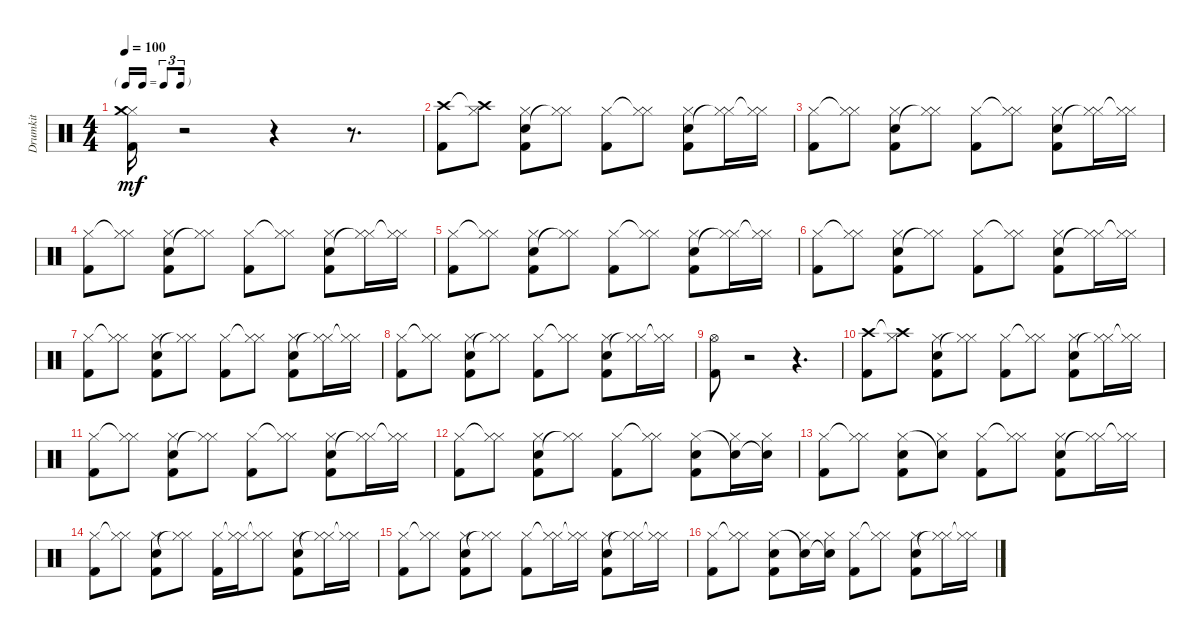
\track ("Drumkit" "Drumkit") {instrument percussion}
\staff {score}
\articulation defaults
\ts (4 4)
\tf triplet16th
\tempo 100
\clef neutral
\ks c
("Kick (hit) 2" "Hi-Hat (closed)" "Crash medium (hit)").16{dy mf} r.2 r.4 r.8{d} |
("Crash high (hit)" "Kick (hit) 2").8 ("Crash high (hit)"{t} "Hi-Hat (closed)").8 ("Snare (hit) 2" "Hi-Hat (closed)" "Kick (hit) 2").8 ("Hi-Hat (closed)"{t} "Hi-Hat (closed)").8 ("Hi-Hat (closed)" "Kick (hit) 2").8 ("Hi-Hat (closed)"{t} "Hi-Hat (closed)").8 ("Snare (hit) 2" "Hi-Hat (closed)" "Kick (hit) 2").8 ("Hi-Hat (closed)"{t} "Hi-Hat (closed)").16 ("Hi-Hat (closed)"{t} "Hi-Hat (closed)").16 |
("Hi-Hat (closed)" "Kick (hit) 2").8 ("Hi-Hat (closed)"{t} "Hi-Hat (closed)").8 ("Snare (hit) 2" "Hi-Hat (closed)" "Kick (hit) 2").8 ("Hi-Hat (closed)"{t} "Hi-Hat (closed)").8 ("Hi-Hat (closed)" "Kick (hit) 2").8 ("Hi-Hat (closed)"{t} "Hi-Hat (closed)").8 ("Snare (hit) 2" "Hi-Hat (closed)" "Kick (hit) 2").8 ("Hi-Hat (closed)"{t} "Hi-Hat (closed)").16 ("Hi-Hat (closed)"{t} "Hi-Hat (closed)").16 |
("Hi-Hat (closed)" "Kick (hit) 2").8 ("Hi-Hat (closed)"{t} "Hi-Hat (closed)").8 ("Snare (hit) 2" "Hi-Hat (closed)" "Kick (hit) 2").8 ("Hi-Hat (closed)"{t} "Hi-Hat (closed)").8 ("Hi-Hat (closed)" "Kick (hit) 2").8 ("Hi-Hat (closed)"{t} "Hi-Hat (closed)").8 ("Snare (hit) 2" "Hi-Hat (closed)" "Kick (hit) 2").8 ("Hi-Hat (closed)"{t} "Hi-Hat (closed)").16 ("Hi-Hat (closed)"{t} "Hi-Hat (closed)").16 |
("Hi-Hat (closed)" "Kick (hit) 2").8 ("Hi-Hat (closed)"{t} "Hi-Hat (closed)").8 ("Snare (hit) 2" "Hi-Hat (closed)" "Kick (hit) 2").8 ("Hi-Hat (closed)"{t} "Hi-Hat (closed)").8 ("Hi-Hat (closed)" "Kick (hit) 2").8 ("Hi-Hat (closed)"{t} "Hi-Hat (closed)").8 ("Snare (hit) 2" "Hi-Hat (closed)" "Kick (hit) 2").8 ("Hi-Hat (closed)"{t} "Hi-Hat (closed)").16 ("Hi-Hat (closed)"{t} "Hi-Hat (closed)").16 |
("Hi-Hat (closed)" "Kick (hit) 2").8 ("Hi-Hat (closed)"{t} "Hi-Hat (closed)").8 ("Snare (hit) 2" "Hi-Hat (closed)" "Kick (hit) 2").8 ("Hi-Hat (closed)"{t} "Hi-Hat (closed)").8 ("Hi-Hat (closed)" "Kick (hit) 2").8 ("Hi-Hat (closed)"{t} "Hi-Hat (closed)").8 ("Snare (hit) 2" "Hi-Hat (closed)" "Kick (hit) 2").8 ("Hi-Hat (closed)"{t} "Hi-Hat (closed)").16 ("Hi-Hat (closed)"{t} "Hi-Hat (closed)").16 |
("Hi-Hat (closed)" "Kick (hit) 2").8 ("Hi-Hat (closed)"{t} "Hi-Hat (closed)").8 ("Snare (hit) 2" "Hi-Hat (closed)" "Kick (hit) 2").8 ("Hi-Hat (closed)"{t} "Hi-Hat (closed)").8 ("Hi-Hat (closed)" "Kick (hit) 2").8 ("Hi-Hat (closed)"{t} "Hi-Hat (closed)").8 ("Snare (hit) 2" "Hi-Hat (closed)" "Kick (hit) 2").8 ("Hi-Hat (closed)"{t} "Hi-Hat (closed)").16 ("Hi-Hat (closed)"{t} "Hi-Hat (closed)").16 |
("Hi-Hat (closed)" "Kick (hit) 2").8 ("Hi-Hat (closed)"{t} "Hi-Hat (closed)").8 ("Snare (hit) 2" "Hi-Hat (closed)" "Kick (hit) 2").8 ("Hi-Hat (closed)"{t} "Hi-Hat (closed)").8 ("Hi-Hat (closed)" "Kick (hit) 2").8 ("Hi-Hat (closed)"{t} "Hi-Hat (closed)").8 ("Snare (hit) 2" "Hi-Hat (closed)" "Kick (hit) 2").8 ("Hi-Hat (closed)"{t} "Hi-Hat (closed)").16 ("Hi-Hat (closed)"{t} "Hi-Hat (closed)").16 |
("Kick (hit) 2" "Hi-Hat (open)").8 r.2 r.4{d} |
("Crash high (hit)" "Kick (hit) 2").8 ("Crash high (hit)"{t} "Hi-Hat (closed)").8 ("Snare (hit) 2" "Hi-Hat (closed)" "Kick (hit) 2").8 ("Hi-Hat (closed)"{t} "Hi-Hat (closed)").8 ("Hi-Hat (closed)" "Kick (hit) 2").8 ("Hi-Hat (closed)"{t} "Hi-Hat (closed)").8 ("Snare (hit) 2" "Hi-Hat (closed)" "Kick (hit) 2").8 ("Hi-Hat (closed)"{t} "Hi-Hat (closed)").16 ("Hi-Hat (closed)"{t} "Hi-Hat (closed)").16 |
("Hi-Hat (closed)" "Kick (hit) 2").8 ("Hi-Hat (closed)"{t} "Hi-Hat (closed)").8 ("Snare (hit) 2" "Hi-Hat (closed)" "Kick (hit) 2").8 ("Hi-Hat (closed)"{t} "Hi-Hat (closed)").8 ("Hi-Hat (closed)" "Kick (hit) 2").8 ("Hi-Hat (closed)"{t} "Hi-Hat (closed)").8 ("Snare (hit) 2" "Hi-Hat (closed)" "Kick (hit) 2").8 ("Hi-Hat (closed)"{t} "Hi-Hat (closed)").16 ("Hi-Hat (closed)"{t} "Hi-Hat (closed)").16 |
("Hi-Hat (closed)" "Kick (hit) 2").8 ("Hi-Hat (closed)"{t} "Hi-Hat (closed)").8 ("Snare (hit) 2" "Hi-Hat (closed)" "Kick (hit) 2").8 ("Hi-Hat (closed)"{t} "Hi-Hat (closed)").8 ("Hi-Hat (closed)" "Kick (hit) 2").8 ("Hi-Hat (closed)"{t} "Hi-Hat (closed)").8 ("Hi-Hat (closed)" "Snare (hit) 2" "Kick (hit) 2").8 ("Snare (hit) 2"{t} "Hi-Hat (closed)").16 ("Snare (hit) 2"{t} "Hi-Hat (closed)").16 |
("Hi-Hat (closed)" "Kick (hit) 2").8 ("Hi-Hat (closed)"{t} "Hi-Hat (closed)").8 ("Hi-Hat (closed)" "Snare (hit) 2" "Kick (hit) 2").8 ("Snare (hit) 2"{t} "Hi-Hat (closed)").8 ("Hi-Hat (closed)" "Kick (hit) 2").8 ("Hi-Hat (closed)"{t} "Hi-Hat (closed)").8 ("Snare (hit) 2" "Hi-Hat (closed)" "Kick (hit) 2").8 ("Hi-Hat (closed)"{t} "Hi-Hat (closed)").16 ("Hi-Hat (closed)"{t} "Hi-Hat (closed)").16 |
("Hi-Hat (closed)" "Kick (hit) 2").8 ("Hi-Hat (closed)"{t} "Hi-Hat (closed)").8 ("Snare (hit) 2" "Hi-Hat (closed)" "Kick (hit) 2").8 ("Hi-Hat (closed)"{t} "Hi-Hat (closed)").8 ("Hi-Hat (closed)" "Kick (hit) 2").16 ("Hi-Hat (closed)"{t} "Hi-Hat (closed)").16 ("Hi-Hat (closed)"{t} "Hi-Hat (closed)").8 ("Snare (hit) 2" "Hi-Hat (closed)" "Kick (hit) 2").8 ("Hi-Hat (closed)"{t} "Hi-Hat (closed)").16 ("Hi-Hat (closed)"{t} "Hi-Hat (closed)").16 |
("Hi-Hat (closed)" "Kick (hit) 2").8 ("Hi-Hat (closed)"{t} "Hi-Hat (closed)").8 ("Snare (hit) 2" "Hi-Hat (closed)" "Kick (hit) 2").8 ("Hi-Hat (closed)"{t} "Hi-Hat (closed)").8 ("Hi-Hat (closed)" "Kick (hit) 2").8 ("Hi-Hat (closed)"{t} "Hi-Hat (closed)").16 ("Hi-Hat (closed)"{t} "Hi-Hat (closed)").16 ("Snare (hit) 2" "Hi-Hat (closed)" "Kick (hit) 2").8 ("Hi-Hat (closed)"{t} "Hi-Hat (closed)").16 ("Hi-Hat (closed)"{t} "Hi-Hat (closed)").16 |
("Hi-Hat (closed)" "Kick (hit) 2").8 ("Hi-Hat (closed)"{t} "Hi-Hat (closed)").8 ("Hi-Hat (closed)" "Snare (hit) 2" "Kick (hit) 2").8 ("Snare (hit) 2"{t} "Hi-Hat (closed)").16 ("Snare (hit) 2"{t} "Hi-Hat (closed)").16 ("Hi-Hat (closed)" "Kick (hit) 2").8 ("Hi-Hat (closed)"{t} "Hi-Hat (closed)").8 ("Snare (hit) 2" "Hi-Hat (closed)" "Kick (hit) 2").8 ("Hi-Hat (closed)"{t} "Hi-Hat (closed)").16 ("Hi-Hat (closed)"{t} "Hi-Hat (closed)").16
